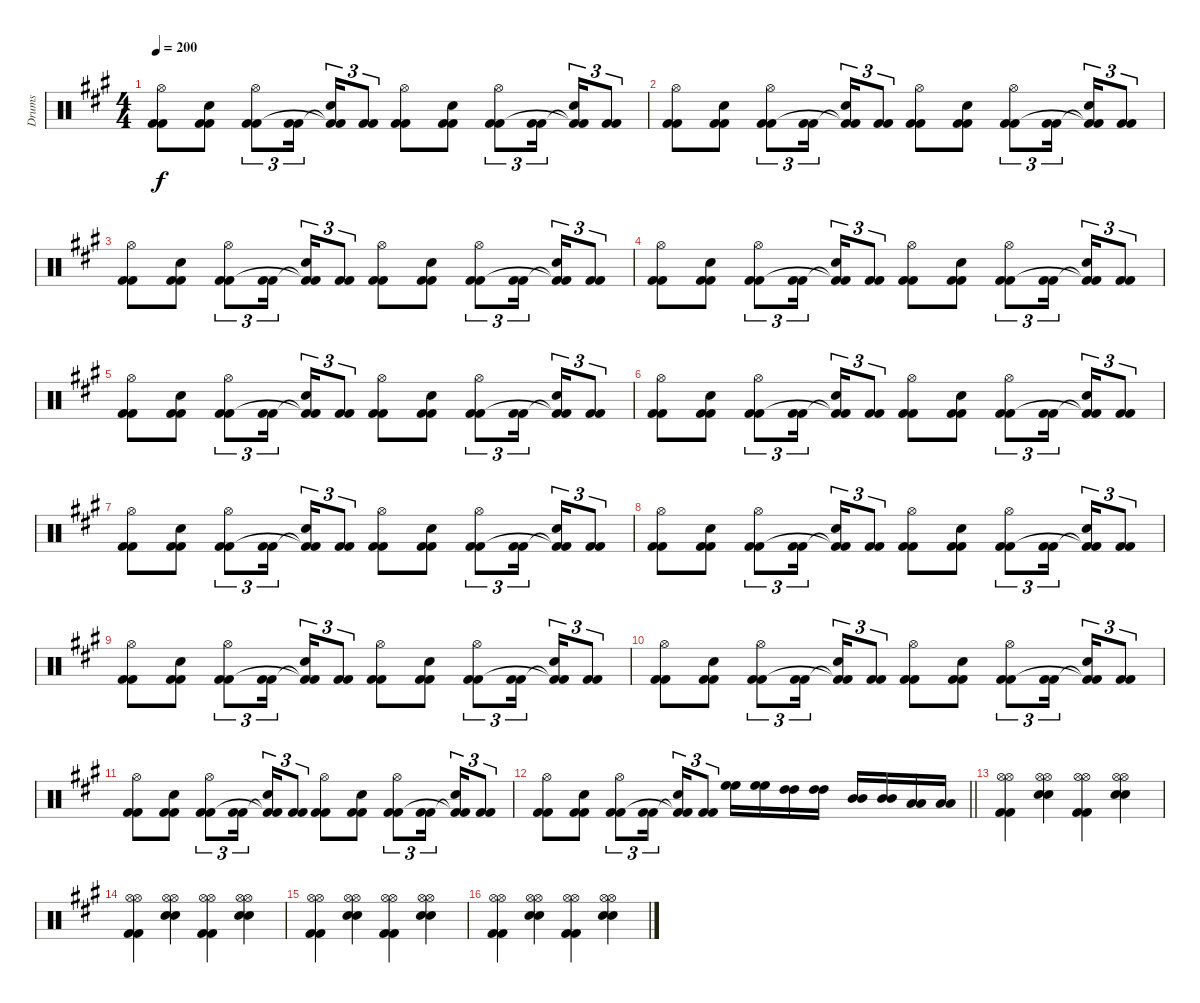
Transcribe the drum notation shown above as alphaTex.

\track ("Drums" "Drums") {instrument percussion}
\staff {score}
\articulation defaults
\ts (4 4)
\tempo 200
\clef neutral
\ks f#minor
("Hi-Hat (open)" "Kick (hit) 2" "Kick (hit) 2").8{dy f} ("Snare (hit) 2" "Kick (hit) 2" "Kick (hit) 2").8 ("Hi-Hat (open)" "Kick (hit) 2" "Kick (hit) 2").8{tu (3 2)} ("Kick (hit) 2" "Kick (hit) 2").16{tu (3 2) beam splitsecondary} ("Snare (hit) 2" "Kick (hit) 2"{t} "Kick (hit) 2"{t}).16{tu (3 2)} ("Kick (hit) 2" "Kick (hit) 2").8{tu (3 2)} ("Hi-Hat (open)" "Kick (hit) 2" "Kick (hit) 2").8 ("Snare (hit) 2" "Kick (hit) 2" "Kick (hit) 2").8 ("Hi-Hat (open)" "Kick (hit) 2" "Kick (hit) 2").8{tu (3 2)} ("Kick (hit) 2" "Kick (hit) 2").16{tu (3 2) beam splitsecondary} ("Snare (hit) 2" "Kick (hit) 2"{t} "Kick (hit) 2"{t}).16{tu (3 2)} ("Kick (hit) 2" "Kick (hit) 2").8{tu (3 2)} |
("Hi-Hat (open)" "Kick (hit) 2" "Kick (hit) 2").8 ("Snare (hit) 2" "Kick (hit) 2" "Kick (hit) 2").8 ("Hi-Hat (open)" "Kick (hit) 2" "Kick (hit) 2").8{tu (3 2)} ("Kick (hit) 2" "Kick (hit) 2").16{tu (3 2) beam splitsecondary} ("Snare (hit) 2" "Kick (hit) 2"{t} "Kick (hit) 2"{t}).16{tu (3 2)} ("Kick (hit) 2" "Kick (hit) 2").8{tu (3 2)} ("Hi-Hat (open)" "Kick (hit) 2" "Kick (hit) 2").8 ("Snare (hit) 2" "Kick (hit) 2" "Kick (hit) 2").8 ("Hi-Hat (open)" "Kick (hit) 2" "Kick (hit) 2").8{tu (3 2)} ("Kick (hit) 2" "Kick (hit) 2").16{tu (3 2) beam splitsecondary} ("Snare (hit) 2" "Kick (hit) 2"{t} "Kick (hit) 2"{t}).16{tu (3 2)} ("Kick (hit) 2" "Kick (hit) 2").8{tu (3 2)} |
("Hi-Hat (open)" "Kick (hit) 2" "Kick (hit) 2").8 ("Snare (hit) 2" "Kick (hit) 2" "Kick (hit) 2").8 ("Hi-Hat (open)" "Kick (hit) 2" "Kick (hit) 2").8{tu (3 2)} ("Kick (hit) 2" "Kick (hit) 2").16{tu (3 2) beam splitsecondary} ("Snare (hit) 2" "Kick (hit) 2"{t} "Kick (hit) 2"{t}).16{tu (3 2)} ("Kick (hit) 2" "Kick (hit) 2").8{tu (3 2)} ("Hi-Hat (open)" "Kick (hit) 2" "Kick (hit) 2").8 ("Snare (hit) 2" "Kick (hit) 2" "Kick (hit) 2").8 ("Hi-Hat (open)" "Kick (hit) 2" "Kick (hit) 2").8{tu (3 2)} ("Kick (hit) 2" "Kick (hit) 2").16{tu (3 2) beam splitsecondary} ("Snare (hit) 2" "Kick (hit) 2"{t} "Kick (hit) 2"{t}).16{tu (3 2)} ("Kick (hit) 2" "Kick (hit) 2").8{tu (3 2)} |
("Hi-Hat (open)" "Kick (hit) 2" "Kick (hit) 2").8 ("Snare (hit) 2" "Kick (hit) 2" "Kick (hit) 2").8 ("Hi-Hat (open)" "Kick (hit) 2" "Kick (hit) 2").8{tu (3 2)} ("Kick (hit) 2" "Kick (hit) 2").16{tu (3 2) beam splitsecondary} ("Snare (hit) 2" "Kick (hit) 2"{t} "Kick (hit) 2"{t}).16{tu (3 2)} ("Kick (hit) 2" "Kick (hit) 2").8{tu (3 2)} ("Hi-Hat (open)" "Kick (hit) 2" "Kick (hit) 2").8 ("Snare (hit) 2" "Kick (hit) 2" "Kick (hit) 2").8 ("Hi-Hat (open)" "Kick (hit) 2" "Kick (hit) 2").8{tu (3 2)} ("Kick (hit) 2" "Kick (hit) 2").16{tu (3 2) beam splitsecondary} ("Snare (hit) 2" "Kick (hit) 2"{t} "Kick (hit) 2"{t}).16{tu (3 2)} ("Kick (hit) 2" "Kick (hit) 2").8{tu (3 2)} |
("Hi-Hat (open)" "Kick (hit) 2" "Kick (hit) 2").8 ("Snare (hit) 2" "Kick (hit) 2" "Kick (hit) 2").8 ("Hi-Hat (open)" "Kick (hit) 2" "Kick (hit) 2").8{tu (3 2)} ("Kick (hit) 2" "Kick (hit) 2").16{tu (3 2) beam splitsecondary} ("Snare (hit) 2" "Kick (hit) 2"{t} "Kick (hit) 2"{t}).16{tu (3 2)} ("Kick (hit) 2" "Kick (hit) 2").8{tu (3 2)} ("Hi-Hat (open)" "Kick (hit) 2" "Kick (hit) 2").8 ("Snare (hit) 2" "Kick (hit) 2" "Kick (hit) 2").8 ("Hi-Hat (open)" "Kick (hit) 2" "Kick (hit) 2").8{tu (3 2)} ("Kick (hit) 2" "Kick (hit) 2").16{tu (3 2) beam splitsecondary} ("Snare (hit) 2" "Kick (hit) 2"{t} "Kick (hit) 2"{t}).16{tu (3 2)} ("Kick (hit) 2" "Kick (hit) 2").8{tu (3 2)} |
("Hi-Hat (open)" "Kick (hit) 2" "Kick (hit) 2").8 ("Snare (hit) 2" "Kick (hit) 2" "Kick (hit) 2").8 ("Hi-Hat (open)" "Kick (hit) 2" "Kick (hit) 2").8{tu (3 2)} ("Kick (hit) 2" "Kick (hit) 2").16{tu (3 2) beam splitsecondary} ("Snare (hit) 2" "Kick (hit) 2"{t} "Kick (hit) 2"{t}).16{tu (3 2)} ("Kick (hit) 2" "Kick (hit) 2").8{tu (3 2)} ("Hi-Hat (open)" "Kick (hit) 2" "Kick (hit) 2").8 ("Snare (hit) 2" "Kick (hit) 2" "Kick (hit) 2").8 ("Hi-Hat (open)" "Kick (hit) 2" "Kick (hit) 2").8{tu (3 2)} ("Kick (hit) 2" "Kick (hit) 2").16{tu (3 2) beam splitsecondary} ("Snare (hit) 2" "Kick (hit) 2"{t} "Kick (hit) 2"{t}).16{tu (3 2)} ("Kick (hit) 2" "Kick (hit) 2").8{tu (3 2)} |
("Hi-Hat (open)" "Kick (hit) 2" "Kick (hit) 2").8 ("Snare (hit) 2" "Kick (hit) 2" "Kick (hit) 2").8 ("Hi-Hat (open)" "Kick (hit) 2" "Kick (hit) 2").8{tu (3 2)} ("Kick (hit) 2" "Kick (hit) 2").16{tu (3 2) beam splitsecondary} ("Snare (hit) 2" "Kick (hit) 2"{t} "Kick (hit) 2"{t}).16{tu (3 2)} ("Kick (hit) 2" "Kick (hit) 2").8{tu (3 2)} ("Hi-Hat (open)" "Kick (hit) 2" "Kick (hit) 2").8 ("Snare (hit) 2" "Kick (hit) 2" "Kick (hit) 2").8 ("Hi-Hat (open)" "Kick (hit) 2" "Kick (hit) 2").8{tu (3 2)} ("Kick (hit) 2" "Kick (hit) 2").16{tu (3 2) beam splitsecondary} ("Snare (hit) 2" "Kick (hit) 2"{t} "Kick (hit) 2"{t}).16{tu (3 2)} ("Kick (hit) 2" "Kick (hit) 2").8{tu (3 2)} |
("Hi-Hat (open)" "Kick (hit) 2" "Kick (hit) 2").8 ("Snare (hit) 2" "Kick (hit) 2" "Kick (hit) 2").8 ("Hi-Hat (open)" "Kick (hit) 2" "Kick (hit) 2").8{tu (3 2)} ("Kick (hit) 2" "Kick (hit) 2").16{tu (3 2) beam splitsecondary} ("Snare (hit) 2" "Kick (hit) 2"{t} "Kick (hit) 2"{t}).16{tu (3 2)} ("Kick (hit) 2" "Kick (hit) 2").8{tu (3 2)} ("Hi-Hat (open)" "Kick (hit) 2" "Kick (hit) 2").8 ("Snare (hit) 2" "Kick (hit) 2" "Kick (hit) 2").8 ("Hi-Hat (open)" "Kick (hit) 2" "Kick (hit) 2").8{tu (3 2)} ("Kick (hit) 2" "Kick (hit) 2").16{tu (3 2) beam splitsecondary} ("Snare (hit) 2" "Kick (hit) 2"{t} "Kick (hit) 2"{t}).16{tu (3 2)} ("Kick (hit) 2" "Kick (hit) 2").8{tu (3 2)} |
("Hi-Hat (open)" "Kick (hit) 2" "Kick (hit) 2").8 ("Snare (hit) 2" "Kick (hit) 2" "Kick (hit) 2").8 ("Hi-Hat (open)" "Kick (hit) 2" "Kick (hit) 2").8{tu (3 2)} ("Kick (hit) 2" "Kick (hit) 2").16{tu (3 2) beam splitsecondary} ("Snare (hit) 2" "Kick (hit) 2"{t} "Kick (hit) 2"{t}).16{tu (3 2)} ("Kick (hit) 2" "Kick (hit) 2").8{tu (3 2)} ("Hi-Hat (open)" "Kick (hit) 2" "Kick (hit) 2").8 ("Snare (hit) 2" "Kick (hit) 2" "Kick (hit) 2").8 ("Hi-Hat (open)" "Kick (hit) 2" "Kick (hit) 2").8{tu (3 2)} ("Kick (hit) 2" "Kick (hit) 2").16{tu (3 2) beam splitsecondary} ("Snare (hit) 2" "Kick (hit) 2"{t} "Kick (hit) 2"{t}).16{tu (3 2)} ("Kick (hit) 2" "Kick (hit) 2").8{tu (3 2)} |
("Hi-Hat (open)" "Kick (hit) 2" "Kick (hit) 2").8 ("Snare (hit) 2" "Kick (hit) 2" "Kick (hit) 2").8 ("Hi-Hat (open)" "Kick (hit) 2" "Kick (hit) 2").8{tu (3 2)} ("Kick (hit) 2" "Kick (hit) 2").16{tu (3 2) beam splitsecondary} ("Snare (hit) 2" "Kick (hit) 2"{t} "Kick (hit) 2"{t}).16{tu (3 2)} ("Kick (hit) 2" "Kick (hit) 2").8{tu (3 2)} ("Hi-Hat (open)" "Kick (hit) 2" "Kick (hit) 2").8 ("Snare (hit) 2" "Kick (hit) 2" "Kick (hit) 2").8 ("Hi-Hat (open)" "Kick (hit) 2" "Kick (hit) 2").8{tu (3 2)} ("Kick (hit) 2" "Kick (hit) 2").16{tu (3 2) beam splitsecondary} ("Snare (hit) 2" "Kick (hit) 2"{t} "Kick (hit) 2"{t}).16{tu (3 2)} ("Kick (hit) 2" "Kick (hit) 2").8{tu (3 2)} |
("Hi-Hat (open)" "Kick (hit) 2" "Kick (hit) 2").8 ("Snare (hit) 2" "Kick (hit) 2" "Kick (hit) 2").8 ("Hi-Hat (open)" "Kick (hit) 2" "Kick (hit) 2").8{tu (3 2)} ("Kick (hit) 2" "Kick (hit) 2").16{tu (3 2) beam splitsecondary} ("Snare (hit) 2" "Kick (hit) 2"{t} "Kick (hit) 2"{t}).16{tu (3 2)} ("Kick (hit) 2" "Kick (hit) 2").8{tu (3 2)} ("Hi-Hat (open)" "Kick (hit) 2" "Kick (hit) 2").8 ("Snare (hit) 2" "Kick (hit) 2" "Kick (hit) 2").8 ("Hi-Hat (open)" "Kick (hit) 2" "Kick (hit) 2").8{tu (3 2)} ("Kick (hit) 2" "Kick (hit) 2").16{tu (3 2) beam splitsecondary} ("Snare (hit) 2" "Kick (hit) 2"{t} "Kick (hit) 2"{t}).16{tu (3 2)} ("Kick (hit) 2" "Kick (hit) 2").8{tu (3 2)} |
\barLineRight lightlight
("Hi-Hat (open)" "Kick (hit) 2" "Kick (hit) 2").8 ("Snare (hit) 2" "Kick (hit) 2" "Kick (hit) 2").8 ("Hi-Hat (open)" "Kick (hit) 2" "Kick (hit) 2").8{tu (3 2)} ("Kick (hit) 2" "Kick (hit) 2").16{tu (3 2) beam splitsecondary} ("Snare (hit) 2" "Kick (hit) 2"{t} "Kick (hit) 2"{t}).16{tu (3 2)} ("Kick (hit) 2" "Kick (hit) 2").8{tu (3 2)} ("High Floor Tom (hit)" "High Floor Tom (hit)").16 ("High Floor Tom (hit)" "High Floor Tom (hit)").16 ("High Tom (hit)" "High Tom (hit)").16 ("High Tom (hit)" "High Tom (hit)").16 ("Mid Tom (hit)" "Mid Tom (hit)").16 ("Mid Tom (hit)" "Mid Tom (hit)").16 ("Low Tom (hit)" "Low Tom (hit)").16 ("Low Tom (hit)" "Low Tom (hit)").16 |
("Hi-Hat (open)" "Hi-Hat (open)" "Kick (hit) 2" "Kick (hit) 2").4 ("Hi-Hat (open)" "Hi-Hat (open)" "Snare (hit) 2" "Snare (hit) 2").4 ("Hi-Hat (open)" "Hi-Hat (open)" "Kick (hit) 2" "Kick (hit) 2").4 ("Hi-Hat (open)" "Hi-Hat (open)" "Snare (hit) 2" "Snare (hit) 2").4 |
("Hi-Hat (open)" "Hi-Hat (open)" "Kick (hit) 2" "Kick (hit) 2").4 ("Hi-Hat (open)" "Hi-Hat (open)" "Snare (hit) 2" "Snare (hit) 2").4 ("Hi-Hat (open)" "Hi-Hat (open)" "Kick (hit) 2" "Kick (hit) 2").4 ("Hi-Hat (open)" "Hi-Hat (open)" "Snare (hit) 2" "Snare (hit) 2").4 |
("Hi-Hat (open)" "Hi-Hat (open)" "Kick (hit) 2" "Kick (hit) 2").4 ("Hi-Hat (open)" "Hi-Hat (open)" "Snare (hit) 2" "Snare (hit) 2").4 ("Hi-Hat (open)" "Hi-Hat (open)" "Kick (hit) 2" "Kick (hit) 2").4 ("Hi-Hat (open)" "Hi-Hat (open)" "Snare (hit) 2" "Snare (hit) 2").4 |
("Hi-Hat (open)" "Hi-Hat (open)" "Kick (hit) 2" "Kick (hit) 2").4 ("Hi-Hat (open)" "Hi-Hat (open)" "Snare (hit) 2" "Snare (hit) 2").4 ("Hi-Hat (open)" "Hi-Hat (open)" "Kick (hit) 2" "Kick (hit) 2").4 ("Hi-Hat (open)" "Hi-Hat (open)" "Snare (hit) 2" "Snare (hit) 2").4
